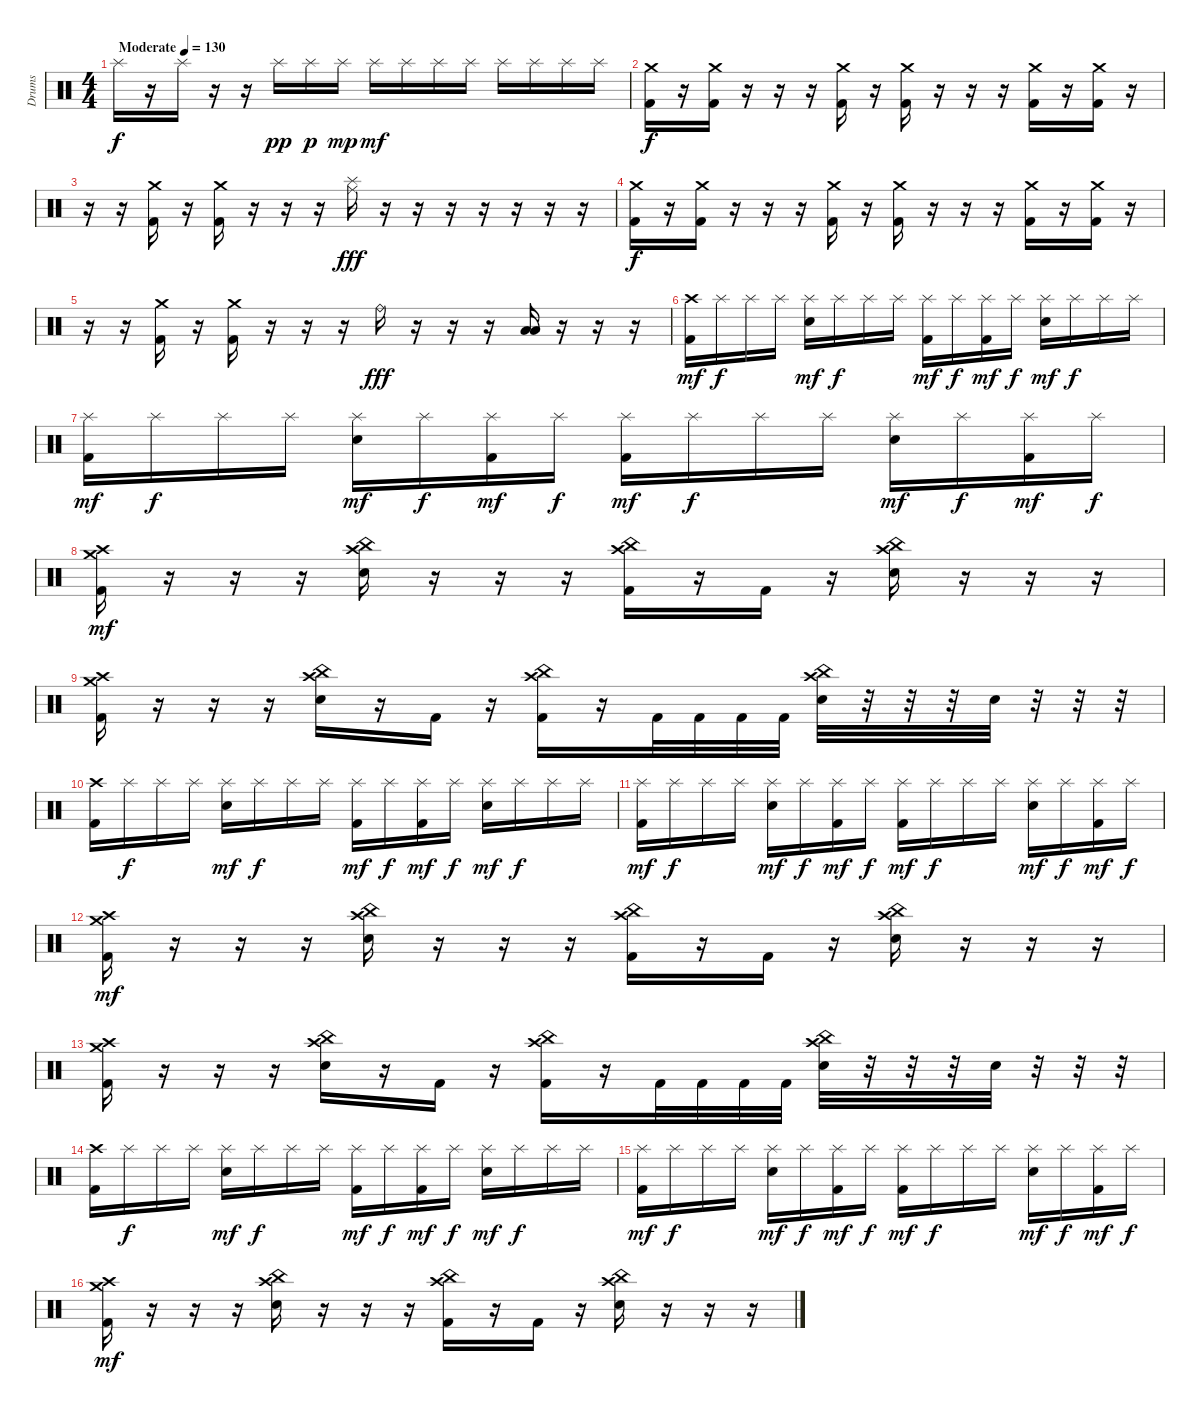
\track ("Drums" "Drums") {instrument percussion}
\staff {score}
\articulation defaults
\ts (4 4)
\tempo (130 "Moderate")
\clef neutral
\ks c "Splash (hit)".16{dy f}
r.16 "Splash (hit)".16 r.16 r.16 "Splash (hit)".16{dy pp} "Splash (hit)".16{dy p} "Splash (hit)".16{dy mp} "Splash (hit)".16{dy mf} "Splash (hit)".16 "Splash (hit)".16 "Splash (hit)".16 "Splash (hit)".16 "Splash (hit)".16 "Splash (hit)".16 "Splash (hit)".16 |
("Crash medium (hit)" "Kick (hit) 2").16{dy f} r.16 ("Crash medium (hit)" "Kick (hit) 2").16 r.16 r.16 r.16 ("Crash medium (hit)" "Kick (hit) 2").16 r.16 ("Crash medium (hit)" "Kick (hit) 2").16 r.16 r.16 r.16 ("Crash medium (hit)" "Kick (hit) 2").16 r.16 ("Crash medium (hit)" "Kick (hit) 2").16 r.16 |
r.16 r.16 ("Crash medium (hit)" "Kick (hit) 2").16 r.16 ("Crash medium (hit)" "Kick (hit) 2").16 r.16 r.16 r.16 ("Splash (hit)" "Ride (middle)").16{dy fff} r.16 r.16 r.16 r.16 r.16 r.16 r.16 |
("Crash medium (hit)" "Kick (hit) 2").16{dy f} r.16 ("Crash medium (hit)" "Kick (hit) 2").16 r.16 r.16 r.16 ("Crash medium (hit)" "Kick (hit) 2").16 r.16 ("Crash medium (hit)" "Kick (hit) 2").16 r.16 r.16 r.16 ("Crash medium (hit)" "Kick (hit) 2").16 r.16 ("Crash medium (hit)" "Kick (hit) 2").16 r.16 |
r.16 r.16 ("Crash medium (hit)" "Kick (hit) 2").16 r.16 ("Crash medium (hit)" "Kick (hit) 2").16 r.16 r.16 r.16 "Ride (bell)".16{dy fff} r.16 r.16 r.16 ("Low Tom (hit)" "Low Tom (hit)").16 r.16 r.16 r.16 |
("Crash high (hit)" "Kick (hit) 2").16{dy mf} "Splash (hit)".16{dy f} "Splash (hit)".16 "Splash (hit)".16 ("Splash (hit)" "Electric Snare (hit)").16{dy mf} "Splash (hit)".16{dy f} "Splash (hit)".16 "Splash (hit)".16 ("Splash (hit)" "Kick (hit) 2").16{dy mf} "Splash (hit)".16{dy f} ("Splash (hit)" "Kick (hit) 2").16{dy mf} "Splash (hit)".16{dy f} ("Splash (hit)" "Electric Snare (hit)").16{dy mf} "Splash (hit)".16{dy f} "Splash (hit)".16 "Splash (hit)".16 |
("Splash (hit)" "Kick (hit) 2").16{dy mf} "Splash (hit)".16{dy f} "Splash (hit)".16 "Splash (hit)".16 ("Splash (hit)" "Electric Snare (hit)").16{dy mf} "Splash (hit)".16{dy f} ("Splash (hit)" "Kick (hit) 2").16{dy mf} "Splash (hit)".16{dy f} ("Splash (hit)" "Kick (hit) 2").16{dy mf} "Splash (hit)".16{dy f} "Splash (hit)".16 "Splash (hit)".16 ("Splash (hit)" "Electric Snare (hit)").16{dy mf} "Splash (hit)".16{dy f} ("Splash (hit)" "Kick (hit) 2").16{dy mf} "Splash (hit)".16{dy f} |
("Crash medium (hit)" "Crash high (hit)" "Kick (hit) 2").16{dy mf} r.16 r.16 r.16 ("China (hit)" "Crash high (hit)" "Electric Snare (hit)").16 r.16 r.16 r.16 ("China (hit)" "Crash high (hit)" "Kick (hit) 2").16 r.16 "Kick (hit) 2".16 r.16 ("China (hit)" "Crash high (hit)" "Electric Snare (hit)").16 r.16 r.16 r.16 |
("Crash medium (hit)" "Crash high (hit)" "Kick (hit) 2").16 r.16 r.16 r.16 ("China (hit)" "Crash high (hit)" "Electric Snare (hit)").16 r.16 "Kick (hit) 2".16 r.16 ("China (hit)" "Crash high (hit)" "Kick (hit) 2").16 r.16 "Kick (hit) 2".32 "Kick (hit) 2".32 "Kick (hit) 2".32 "Kick (hit) 2".32 ("China (hit)" "Crash high (hit)" "Electric Snare (hit)").32 r.32 r.32 r.32 "Electric Snare (hit)".32 r.32 r.32 r.32 |
("Crash high (hit)" "Kick (hit) 2").16 "Splash (hit)".16{dy f} "Splash (hit)".16 "Splash (hit)".16 ("Splash (hit)" "Electric Snare (hit)").16{dy mf} "Splash (hit)".16{dy f} "Splash (hit)".16 "Splash (hit)".16 ("Splash (hit)" "Kick (hit) 2").16{dy mf} "Splash (hit)".16{dy f} ("Splash (hit)" "Kick (hit) 2").16{dy mf} "Splash (hit)".16{dy f} ("Splash (hit)" "Electric Snare (hit)").16{dy mf} "Splash (hit)".16{dy f} "Splash (hit)".16 "Splash (hit)".16 |
("Splash (hit)" "Kick (hit) 2").16{dy mf} "Splash (hit)".16{dy f} "Splash (hit)".16 "Splash (hit)".16 ("Splash (hit)" "Electric Snare (hit)").16{dy mf} "Splash (hit)".16{dy f} ("Splash (hit)" "Kick (hit) 2").16{dy mf} "Splash (hit)".16{dy f} ("Splash (hit)" "Kick (hit) 2").16{dy mf} "Splash (hit)".16{dy f} "Splash (hit)".16 "Splash (hit)".16 ("Splash (hit)" "Electric Snare (hit)").16{dy mf} "Splash (hit)".16{dy f} ("Splash (hit)" "Kick (hit) 2").16{dy mf} "Splash (hit)".16{dy f} |
("Crash medium (hit)" "Crash high (hit)" "Kick (hit) 2").16{dy mf} r.16 r.16 r.16 ("China (hit)" "Crash high (hit)" "Electric Snare (hit)").16 r.16 r.16 r.16 ("China (hit)" "Crash high (hit)" "Kick (hit) 2").16 r.16 "Kick (hit) 2".16 r.16 ("China (hit)" "Crash high (hit)" "Electric Snare (hit)").16 r.16 r.16 r.16 |
("Crash medium (hit)" "Crash high (hit)" "Kick (hit) 2").16 r.16 r.16 r.16 ("China (hit)" "Crash high (hit)" "Electric Snare (hit)").16 r.16 "Kick (hit) 2".16 r.16 ("China (hit)" "Crash high (hit)" "Kick (hit) 2").16 r.16 "Kick (hit) 2".32 "Kick (hit) 2".32 "Kick (hit) 2".32 "Kick (hit) 2".32 ("China (hit)" "Crash high (hit)" "Electric Snare (hit)").32 r.32 r.32 r.32 "Electric Snare (hit)".32 r.32 r.32 r.32 |
("Crash high (hit)" "Kick (hit) 2").16 "Splash (hit)".16{dy f} "Splash (hit)".16 "Splash (hit)".16 ("Splash (hit)" "Electric Snare (hit)").16{dy mf} "Splash (hit)".16{dy f} "Splash (hit)".16 "Splash (hit)".16 ("Splash (hit)" "Kick (hit) 2").16{dy mf} "Splash (hit)".16{dy f} ("Splash (hit)" "Kick (hit) 2").16{dy mf} "Splash (hit)".16{dy f} ("Splash (hit)" "Electric Snare (hit)").16{dy mf} "Splash (hit)".16{dy f} "Splash (hit)".16 "Splash (hit)".16 |
("Splash (hit)" "Kick (hit) 2").16{dy mf} "Splash (hit)".16{dy f} "Splash (hit)".16 "Splash (hit)".16 ("Splash (hit)" "Electric Snare (hit)").16{dy mf} "Splash (hit)".16{dy f} ("Splash (hit)" "Kick (hit) 2").16{dy mf} "Splash (hit)".16{dy f} ("Splash (hit)" "Kick (hit) 2").16{dy mf} "Splash (hit)".16{dy f} "Splash (hit)".16 "Splash (hit)".16 ("Splash (hit)" "Electric Snare (hit)").16{dy mf} "Splash (hit)".16{dy f} ("Splash (hit)" "Kick (hit) 2").16{dy mf} "Splash (hit)".16{dy f} |
("Crash medium (hit)" "Crash high (hit)" "Kick (hit) 2").16{dy mf} r.16 r.16 r.16 ("China (hit)" "Crash high (hit)" "Electric Snare (hit)").16 r.16 r.16 r.16 ("China (hit)" "Crash high (hit)" "Kick (hit) 2").16 r.16 "Kick (hit) 2".16 r.16 ("China (hit)" "Crash high (hit)" "Electric Snare (hit)").16 r.16 r.16 r.16
